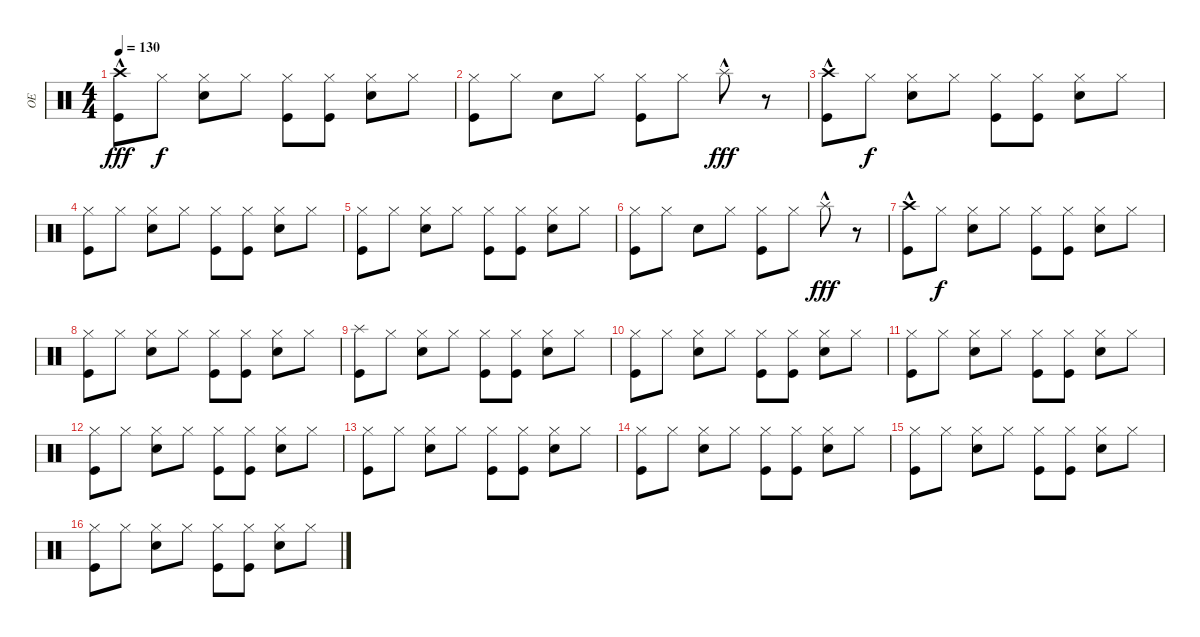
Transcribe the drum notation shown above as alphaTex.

\track ("OE" "OE") {instrument percussion}
\staff {score}
\articulation defaults
\ts (4 4)
\tempo 130
\clef neutral
\ks c
("Crash high (hit)"{hac} "Kick (hit)").8{dy fff} "Hi-Hat (closed)".8{dy f} ("Hi-Hat (closed)" "Snare (hit) 2").8 "Hi-Hat (closed)".8 ("Hi-Hat (closed)" "Kick (hit)").8 ("Hi-Hat (closed)" "Kick (hit)").8 ("Hi-Hat (closed)" "Snare (hit) 2").8 "Hi-Hat (closed)".8 |
("Kick (hit)" "Hi-Hat (closed)").8 "Hi-Hat (closed)".8 "Snare (hit) 2".8 "Hi-Hat (closed)".8 ("Kick (hit)" "Hi-Hat (closed)").8 "Hi-Hat (closed)".8 "Splash (hit)"{hac}.8{dy fff} r.8 |
("Crash high (hit)"{hac} "Kick (hit)").8 "Hi-Hat (closed)".8{dy f} ("Hi-Hat (closed)" "Snare (hit) 2").8 "Hi-Hat (closed)".8 ("Hi-Hat (closed)" "Kick (hit)").8 ("Hi-Hat (closed)" "Kick (hit)").8 ("Hi-Hat (closed)" "Snare (hit) 2").8 "Hi-Hat (closed)".8 |
("Hi-Hat (closed)" "Kick (hit)").8 "Hi-Hat (closed)".8 ("Hi-Hat (closed)" "Snare (hit) 2").8 "Hi-Hat (closed)".8 ("Hi-Hat (closed)" "Kick (hit)").8 ("Hi-Hat (closed)" "Kick (hit)").8 ("Hi-Hat (closed)" "Snare (hit) 2").8 "Hi-Hat (closed)".8 |
("Hi-Hat (closed)" "Kick (hit)").8 "Hi-Hat (closed)".8 ("Hi-Hat (closed)" "Snare (hit) 2").8 "Hi-Hat (closed)".8 ("Hi-Hat (closed)" "Kick (hit)").8 ("Hi-Hat (closed)" "Kick (hit)").8 ("Hi-Hat (closed)" "Snare (hit) 2").8 "Hi-Hat (closed)".8 |
("Kick (hit)" "Hi-Hat (closed)").8 "Hi-Hat (closed)".8 "Snare (hit) 2".8 "Hi-Hat (closed)".8 ("Kick (hit)" "Hi-Hat (closed)").8 "Hi-Hat (closed)".8 "Splash (hit)"{hac}.8{dy fff} r.8 |
("Crash high (hit)"{hac} "Kick (hit)").8 "Hi-Hat (closed)".8{dy f} ("Hi-Hat (closed)" "Snare (hit) 2").8 "Hi-Hat (closed)".8 ("Hi-Hat (closed)" "Kick (hit)").8 ("Hi-Hat (closed)" "Kick (hit)").8 ("Hi-Hat (closed)" "Snare (hit) 2").8 "Hi-Hat (closed)".8 |
("Hi-Hat (closed)" "Kick (hit)").8 "Hi-Hat (closed)".8 ("Hi-Hat (closed)" "Snare (hit) 2").8 "Hi-Hat (closed)".8 ("Hi-Hat (closed)" "Kick (hit)").8 ("Hi-Hat (closed)" "Kick (hit)").8 ("Hi-Hat (closed)" "Snare (hit) 2").8 "Hi-Hat (closed)".8 |
("Splash (hit)" "Kick (hit)").8 "Hi-Hat (closed)".8 ("Hi-Hat (closed)" "Snare (hit) 2").8 "Hi-Hat (closed)".8 ("Hi-Hat (closed)" "Kick (hit)").8 ("Hi-Hat (closed)" "Kick (hit)").8 ("Hi-Hat (closed)" "Snare (hit) 2").8 "Hi-Hat (closed)".8 |
("Hi-Hat (closed)" "Kick (hit)").8 "Hi-Hat (closed)".8 ("Hi-Hat (closed)" "Snare (hit) 2").8 "Hi-Hat (closed)".8 ("Hi-Hat (closed)" "Kick (hit)").8 ("Hi-Hat (closed)" "Kick (hit)").8 ("Hi-Hat (closed)" "Snare (hit) 2").8 "Hi-Hat (closed)".8 |
("Hi-Hat (closed)" "Kick (hit)").8 "Hi-Hat (closed)".8 ("Hi-Hat (closed)" "Snare (hit) 2").8 "Hi-Hat (closed)".8 ("Hi-Hat (closed)" "Kick (hit)").8 ("Hi-Hat (closed)" "Kick (hit)").8 ("Hi-Hat (closed)" "Snare (hit) 2").8 "Hi-Hat (closed)".8 |
("Hi-Hat (closed)" "Kick (hit)").8 "Hi-Hat (closed)".8 ("Hi-Hat (closed)" "Snare (hit) 2").8 "Hi-Hat (closed)".8 ("Hi-Hat (closed)" "Kick (hit)").8 ("Hi-Hat (closed)" "Kick (hit)").8 ("Hi-Hat (closed)" "Snare (hit) 2").8 "Hi-Hat (closed)".8 |
("Hi-Hat (closed)" "Kick (hit)").8 "Hi-Hat (closed)".8 ("Hi-Hat (closed)" "Snare (hit) 2").8 "Hi-Hat (closed)".8 ("Hi-Hat (closed)" "Kick (hit)").8 ("Hi-Hat (closed)" "Kick (hit)").8 ("Hi-Hat (closed)" "Snare (hit) 2").8 "Hi-Hat (closed)".8 |
("Hi-Hat (closed)" "Kick (hit)").8 "Hi-Hat (closed)".8 ("Hi-Hat (closed)" "Snare (hit) 2").8 "Hi-Hat (closed)".8 ("Hi-Hat (closed)" "Kick (hit)").8 ("Hi-Hat (closed)" "Kick (hit)").8 ("Hi-Hat (closed)" "Snare (hit) 2").8 "Hi-Hat (closed)".8 |
("Hi-Hat (closed)" "Kick (hit)").8 "Hi-Hat (closed)".8 ("Hi-Hat (closed)" "Snare (hit) 2").8 "Hi-Hat (closed)".8 ("Hi-Hat (closed)" "Kick (hit)").8 ("Hi-Hat (closed)" "Kick (hit)").8 ("Hi-Hat (closed)" "Snare (hit) 2").8 "Hi-Hat (closed)".8 |
("Hi-Hat (closed)" "Kick (hit)").8 "Hi-Hat (closed)".8 ("Hi-Hat (closed)" "Snare (hit) 2").8 "Hi-Hat (closed)".8 ("Hi-Hat (closed)" "Kick (hit)").8 ("Hi-Hat (closed)" "Kick (hit)").8 ("Hi-Hat (closed)" "Snare (hit) 2").8 "Hi-Hat (closed)".8
